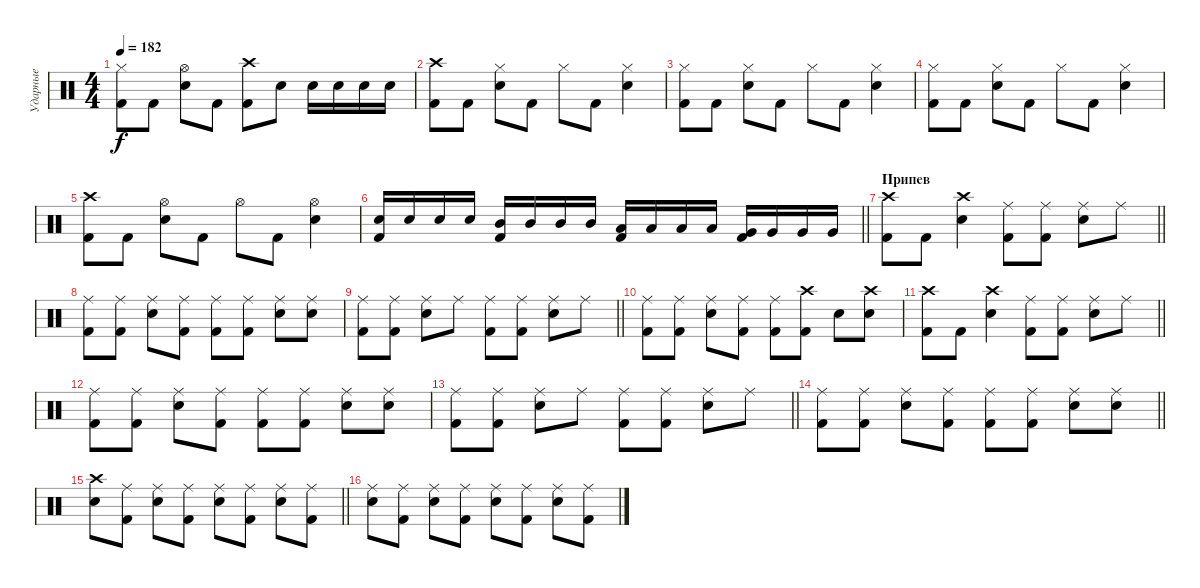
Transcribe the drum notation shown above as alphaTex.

\track ("Ударные" "Ударные") {instrument percussion}
\staff {score}
\articulation defaults
\ts (4 4)
\tempo 182
\clef neutral
\ks c
("Hi-Hat (closed)" "Kick (hit) 2").8{dy f} "Kick (hit) 2".8 ("Hi-Hat (open)" "Snare (hit) 2").8 "Kick (hit) 2".8 ("Crash high (hit)" "Kick (hit) 2").8 "Snare (hit) 2".8 "Snare (hit) 2".16 "Snare (hit) 2".16 "Snare (hit) 2".16 "Snare (hit) 2".16 |
("Crash high (hit)" "Kick (hit) 2").8 "Kick (hit) 2".8 ("Hi-Hat (closed)" "Snare (hit) 2").8 "Kick (hit) 2".8 "Hi-Hat (closed)".8 "Kick (hit) 2".8 ("Hi-Hat (closed)" "Snare (hit) 2").4 |
("Hi-Hat (closed)" "Kick (hit) 2").8 "Kick (hit) 2".8 ("Hi-Hat (closed)" "Snare (hit) 2").8 "Kick (hit) 2".8 "Hi-Hat (closed)".8 "Kick (hit) 2".8 ("Hi-Hat (closed)" "Snare (hit) 2").4 |
("Hi-Hat (closed)" "Kick (hit) 2").8 "Kick (hit) 2".8 ("Hi-Hat (closed)" "Snare (hit) 2").8 "Kick (hit) 2".8 "Hi-Hat (closed)".8 "Kick (hit) 2".8 ("Hi-Hat (closed)" "Snare (hit) 2").4 |
("Crash high (hit)" "Kick (hit) 2").8 "Kick (hit) 2".8 ("Hi-Hat (open)" "Snare (hit) 2").8 "Kick (hit) 2".8 "Hi-Hat (open)".8 "Kick (hit) 2".8 ("Hi-Hat (open)" "Snare (hit) 2").4 |
\barLineRight lightlight
("Snare (hit) 2" "Kick (hit) 2").16 "Snare (hit) 2".16 "Snare (hit) 2".16 "Snare (hit) 2".16 ("Mid Tom (hit)" "Kick (hit) 2").16 "Mid Tom (hit)".16 "Mid Tom (hit)".16 "Mid Tom (hit)".16 ("Low Tom (hit)" "Kick (hit) 2").16 "Low Tom (hit)".16 "Low Tom (hit)".16 "Low Tom (hit)".16 ("Very Low Tom (hit)" "Kick (hit) 2").16 "Very Low Tom (hit)".16 "Very Low Tom (hit)".16 "Very Low Tom (hit)".16 |
\section ("" "Припев")
\barLineRight lightlight
("Crash high (hit)" "Kick (hit) 2").8 "Kick (hit) 2".8 ("Crash high (hit)" "Snare (hit) 2").4 ("Ride (middle)" "Kick (hit) 2").8 ("Ride (middle)" "Kick (hit) 2").8 ("Ride (middle)" "Snare (hit) 2").8 "Ride (middle)".8 |
("Ride (middle)" "Kick (hit) 2").8 ("Ride (middle)" "Kick (hit) 2").8 ("Ride (middle)" "Snare (hit) 2").8 ("Ride (middle)" "Kick (hit) 2").8 ("Ride (middle)" "Kick (hit) 2").8 ("Ride (middle)" "Kick (hit) 2").8 ("Ride (middle)" "Snare (hit) 2").8 ("Ride (middle)" "Snare (hit) 2").8 |
\barLineRight lightlight
("Ride (middle)" "Kick (hit) 2").8 ("Ride (middle)" "Kick (hit) 2").8 ("Ride (middle)" "Snare (hit) 2").8 "Ride (middle)".8 ("Ride (middle)" "Kick (hit) 2").8 ("Ride (middle)" "Kick (hit) 2").8 ("Ride (middle)" "Snare (hit) 2").8 "Ride (middle)".8 |
("Ride (middle)" "Kick (hit) 2").8 ("Ride (middle)" "Kick (hit) 2").8 ("Ride (middle)" "Snare (hit) 2").8 ("Ride (middle)" "Kick (hit) 2").8 ("Ride (middle)" "Kick (hit) 2").8 ("Crash high (hit)" "Kick (hit) 2").8 "Snare (hit) 2".8 ("Crash high (hit)" "Snare (hit) 2").8 |
\barLineRight lightlight
("Crash high (hit)" "Kick (hit) 2").8 "Kick (hit) 2".8 ("Crash high (hit)" "Snare (hit) 2").4 ("Ride (middle)" "Kick (hit) 2").8 ("Ride (middle)" "Kick (hit) 2").8 ("Ride (middle)" "Snare (hit) 2").8 "Ride (middle)".8 |
("Ride (middle)" "Kick (hit) 2").8 ("Ride (middle)" "Kick (hit) 2").8 ("Ride (middle)" "Snare (hit) 2").8 ("Ride (middle)" "Kick (hit) 2").8 ("Ride (middle)" "Kick (hit) 2").8 ("Ride (middle)" "Kick (hit) 2").8 ("Ride (middle)" "Snare (hit) 2").8 ("Ride (middle)" "Snare (hit) 2").8 |
\barLineRight lightlight
("Ride (middle)" "Kick (hit) 2").8 ("Ride (middle)" "Kick (hit) 2").8 ("Ride (middle)" "Snare (hit) 2").8 "Ride (middle)".8 ("Ride (middle)" "Kick (hit) 2").8 ("Ride (middle)" "Kick (hit) 2").8 ("Ride (middle)" "Snare (hit) 2").8 "Ride (middle)".8 |
\barLineRight lightlight
("Ride (middle)" "Kick (hit) 2").8 ("Ride (middle)" "Kick (hit) 2").8 ("Ride (middle)" "Snare (hit) 2").8 ("Ride (middle)" "Kick (hit) 2").8 ("Ride (middle)" "Kick (hit) 2").8 ("Ride (middle)" "Kick (hit) 2").8 ("Ride (middle)" "Snare (hit) 2").8 ("Ride (middle)" "Snare (hit) 2").8 |
\section ("" "")
\barLineRight lightlight
("Crash high (hit)" "Snare (hit) 2").8 ("Ride (middle)" "Kick (hit) 2").8 ("Ride (middle)" "Snare (hit) 2").8 ("Ride (middle)" "Kick (hit) 2").8 ("Ride (middle)" "Snare (hit) 2").8 ("Ride (middle)" "Kick (hit) 2").8 ("Ride (middle)" "Snare (hit) 2").8 ("Ride (middle)" "Kick (hit) 2").8 |
("Ride (middle)" "Snare (hit) 2").8 ("Ride (middle)" "Kick (hit) 2").8 ("Ride (middle)" "Snare (hit) 2").8 ("Ride (middle)" "Kick (hit) 2").8 ("Ride (middle)" "Snare (hit) 2").8 ("Ride (middle)" "Kick (hit) 2").8 ("Ride (middle)" "Snare (hit) 2").8 ("Ride (middle)" "Kick (hit) 2").8
